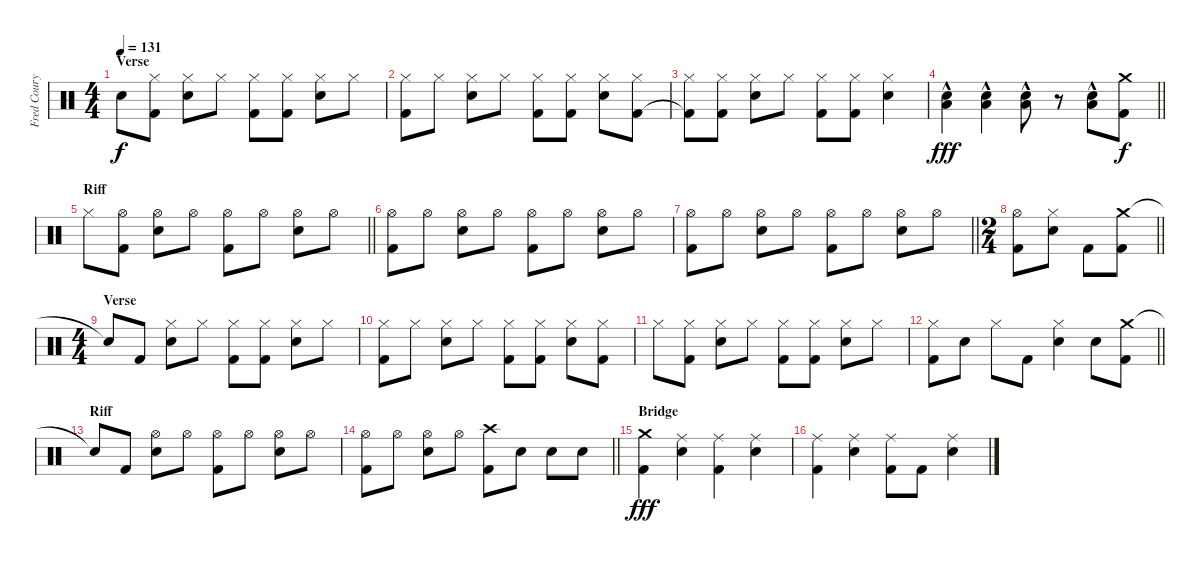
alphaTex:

\track ("Fred Coury - Drums" "Fred Coury") {instrument percussion}
\staff {score}
\articulation defaults
\ts (4 4)
\section ("" "Verse")
\tempo 131
\clef neutral
\ks c "Snare (hit)"{t}.8{dy f}
("Hi-Hat (closed)" "Kick (hit) 2").8 ("Hi-Hat (closed)" "Snare (hit) 2").8 "Hi-Hat (closed)".8 ("Hi-Hat (closed)" "Kick (hit) 2").8 ("Hi-Hat (closed)" "Kick (hit) 2").8 ("Hi-Hat (closed)" "Snare (hit) 2").8 "Hi-Hat (closed)".8 |
("Hi-Hat (closed)" "Kick (hit) 2").8 "Hi-Hat (closed)".8 ("Hi-Hat (closed)" "Snare (hit) 2").8 "Hi-Hat (closed)".8 ("Hi-Hat (closed)" "Kick (hit) 2").8 ("Hi-Hat (closed)" "Kick (hit) 2").8 ("Hi-Hat (closed)" "Snare (hit) 2").8 ("Hi-Hat (closed)" "Kick (hit) 2").8 |
("Hi-Hat (closed)" "Kick (hit) 2"{t}).8 ("Hi-Hat (closed)" "Kick (hit) 2").8 ("Hi-Hat (closed)" "Snare (hit) 2").8 "Hi-Hat (closed)".8 ("Hi-Hat (closed)" "Kick (hit) 2").8 ("Hi-Hat (closed)" "Kick (hit) 2").8 ("Hi-Hat (closed)" "Snare (hit) 2").4 |
\barLineRight lightlight
("Low Tom (hit)"{hac} "Snare (hit) 2"{hac}).4{dy fff} ("Low Tom (hit)"{hac} "Snare (hit) 2"{hac}).4 ("Low Tom (hit)"{hac} "Snare (hit) 2"{hac}).8 r.8 ("Low Tom (hit)"{hac} "Snare (hit) 2"{hac}).8 ("Crash medium (hit)" "Kick (hit) 2").8{dy f} |
\section ("" "Riff")
\barLineRight lightlight "Hi-Hat (closed)".8
("Hi-Hat (open)" "Kick (hit) 2").8 ("Hi-Hat (open)" "Snare (hit) 2").8 "Hi-Hat (open)".8 ("Hi-Hat (open)" "Kick (hit) 2").8 "Hi-Hat (open)".8 ("Hi-Hat (open)" "Snare (hit) 2").8 "Hi-Hat (open)".8 |
("Hi-Hat (open)" "Kick (hit) 2").8 "Hi-Hat (open)".8 ("Hi-Hat (open)" "Snare (hit) 2").8 "Hi-Hat (open)".8 ("Hi-Hat (open)" "Kick (hit) 2").8 "Hi-Hat (open)".8 ("Hi-Hat (open)" "Snare (hit) 2").8 "Hi-Hat (open)".8 |
\barLineRight lightlight
("Hi-Hat (open)" "Kick (hit) 2").8 "Hi-Hat (open)".8 ("Hi-Hat (open)" "Snare (hit) 2").8 "Hi-Hat (open)".8 ("Hi-Hat (open)" "Kick (hit) 2").8 "Hi-Hat (open)".8 ("Hi-Hat (open)" "Snare (hit) 2").8 "Hi-Hat (open)".8 |
\ts (2 4)
\barLineRight lightlight
("Hi-Hat (open)" "Kick (hit) 2").8 ("Hi-Hat (closed)" "Snare (hit) 2").8 "Kick (hit) 2".8 ("Crash medium (hit)" "Kick (hit) 2").8 |
\ts (4 4)
\section ("" "Verse")
"Snare (hit)"{t}.8 "Kick (hit) 2".8 ("Hi-Hat (closed)" "Snare (hit) 2").8 "Hi-Hat (closed)".8 ("Hi-Hat (closed)" "Kick (hit) 2").8 ("Hi-Hat (closed)" "Kick (hit) 2").8 ("Hi-Hat (closed)" "Snare (hit) 2").8 "Hi-Hat (closed)".8 |
("Hi-Hat (closed)" "Kick (hit) 2").8 "Hi-Hat (closed)".8 ("Hi-Hat (closed)" "Snare (hit) 2").8 "Hi-Hat (closed)".8 ("Hi-Hat (closed)" "Kick (hit) 2").8 ("Hi-Hat (closed)" "Kick (hit) 2").8 ("Hi-Hat (closed)" "Snare (hit) 2").8 ("Hi-Hat (closed)" "Kick (hit) 2").8 |
"Hi-Hat (closed)".8 ("Hi-Hat (closed)" "Kick (hit) 2").8 ("Hi-Hat (closed)" "Snare (hit) 2").8 "Hi-Hat (closed)".8 ("Hi-Hat (closed)" "Kick (hit) 2").8 ("Hi-Hat (closed)" "Kick (hit) 2").8 ("Hi-Hat (closed)" "Snare (hit) 2").8 "Hi-Hat (closed)".8 |
\barLineRight lightlight
("Hi-Hat (closed)" "Kick (hit) 2").8 "Snare (hit) 2".8 "Hi-Hat (closed)".8 "Kick (hit) 2".8 ("Hi-Hat (closed)" "Snare (hit) 2").4 "Snare (hit) 2".8 ("Crash medium (hit)" "Kick (hit) 2").8 |
\section ("" "Riff")
"Snare (hit)"{t}.8 "Kick (hit) 2".8 ("Hi-Hat (open)" "Snare (hit) 2").8 "Hi-Hat (open)".8 ("Hi-Hat (open)" "Kick (hit) 2").8 "Hi-Hat (open)".8 ("Hi-Hat (open)" "Snare (hit) 2").8 "Hi-Hat (open)".8 |
\barLineRight lightlight
("Hi-Hat (open)" "Kick (hit) 2").8 "Hi-Hat (open)".8 ("Hi-Hat (open)" "Snare (hit) 2").8 "Hi-Hat (open)".8 ("Crash high (hit)" "Kick (hit) 2").8 "Snare (hit) 2".8 "Snare (hit) 2".8 "Snare (hit) 2".8 |
\section ("" "Bridge")
("Crash medium (hit)" "Kick (hit) 2").4{dy fff} ("Ride (middle)" "Snare (hit) 2").4 ("Ride (middle)" "Kick (hit) 2").4 ("Ride (middle)" "Snare (hit) 2").4 |
("Ride (middle)" "Kick (hit) 2").4 ("Ride (middle)" "Snare (hit) 2").4 ("Ride (middle)" "Kick (hit) 2").8 "Kick (hit) 2".8 ("Ride (middle)" "Snare (hit) 2").4
